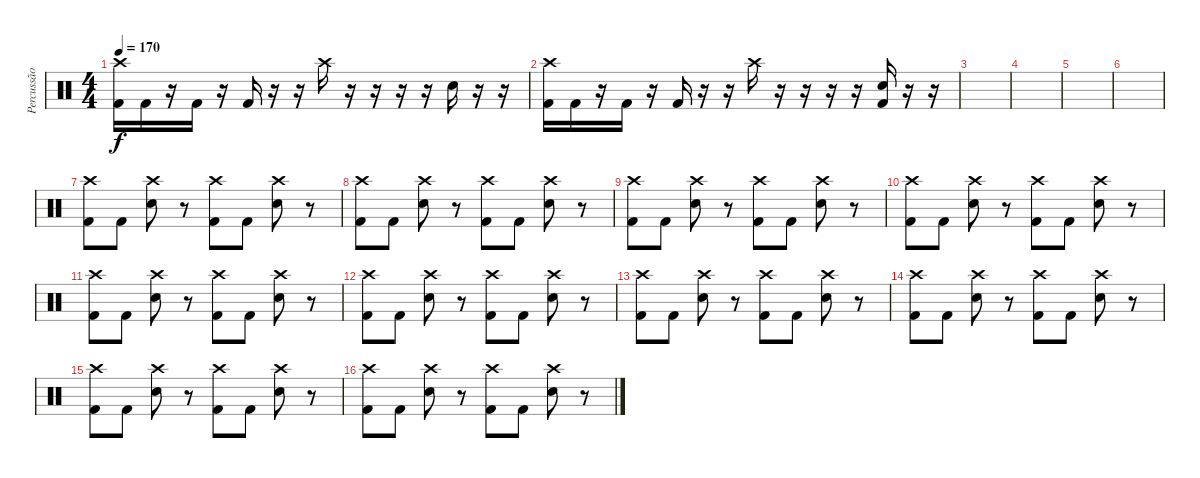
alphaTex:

\track ("Percussão" "Percussão") {instrument percussion}
\staff {score}
\articulation defaults
\ts (4 4)
\tempo 170
\clef neutral
\ks c
("Crash high (hit)" "Kick (hit) 2").16{dy f} "Kick (hit) 2".16 r.16 "Kick (hit) 2".16 r.16 "Kick (hit) 2".16 r.16 r.16 "Crash high (hit)".16 r.16 r.16 r.16 r.16 "Electric Snare (hit)".16 r.16 r.16 |
("Crash high (hit)" "Kick (hit) 2").16 "Kick (hit) 2".16 r.16 "Kick (hit) 2".16 r.16 "Kick (hit) 2".16 r.16 r.16 "Crash high (hit)".16 r.16 r.16 r.16 r.16 ("Electric Snare (hit)" "Kick (hit) 2").16 r.16 r.16 |
|
|
|
|
("Crash high (hit)" "Kick (hit) 2").8 "Kick (hit) 2".8 ("Crash high (hit)" "Electric Snare (hit)").8 r.8 ("Crash high (hit)" "Kick (hit) 2").8 "Kick (hit) 2".8 ("Crash high (hit)" "Electric Snare (hit)").8 r.8 |
("Crash high (hit)" "Kick (hit) 2").8 "Kick (hit) 2".8 ("Crash high (hit)" "Electric Snare (hit)").8 r.8 ("Crash high (hit)" "Kick (hit) 2").8 "Kick (hit) 2".8 ("Crash high (hit)" "Electric Snare (hit)").8 r.8 |
("Crash high (hit)" "Kick (hit) 2").8 "Kick (hit) 2".8 ("Crash high (hit)" "Electric Snare (hit)").8 r.8 ("Crash high (hit)" "Kick (hit) 2").8 "Kick (hit) 2".8 ("Crash high (hit)" "Electric Snare (hit)").8 r.8 |
("Crash high (hit)" "Kick (hit) 2").8 "Kick (hit) 2".8 ("Crash high (hit)" "Electric Snare (hit)").8 r.8 ("Crash high (hit)" "Kick (hit) 2").8 "Kick (hit) 2".8 ("Crash high (hit)" "Electric Snare (hit)").8 r.8 |
("Crash high (hit)" "Kick (hit) 2").8 "Kick (hit) 2".8 ("Crash high (hit)" "Electric Snare (hit)").8 r.8 ("Crash high (hit)" "Kick (hit) 2").8 "Kick (hit) 2".8 ("Crash high (hit)" "Electric Snare (hit)").8 r.8 |
("Crash high (hit)" "Kick (hit) 2").8 "Kick (hit) 2".8 ("Crash high (hit)" "Electric Snare (hit)").8 r.8 ("Crash high (hit)" "Kick (hit) 2").8 "Kick (hit) 2".8 ("Crash high (hit)" "Electric Snare (hit)").8 r.8 |
("Crash high (hit)" "Kick (hit) 2").8 "Kick (hit) 2".8 ("Crash high (hit)" "Electric Snare (hit)").8 r.8 ("Crash high (hit)" "Kick (hit) 2").8 "Kick (hit) 2".8 ("Crash high (hit)" "Electric Snare (hit)").8 r.8 |
("Crash high (hit)" "Kick (hit) 2").8 "Kick (hit) 2".8 ("Crash high (hit)" "Electric Snare (hit)").8 r.8 ("Crash high (hit)" "Kick (hit) 2").8 "Kick (hit) 2".8 ("Crash high (hit)" "Electric Snare (hit)").8 r.8 |
("Crash high (hit)" "Kick (hit) 2").8 "Kick (hit) 2".8 ("Crash high (hit)" "Electric Snare (hit)").8 r.8 ("Crash high (hit)" "Kick (hit) 2").8 "Kick (hit) 2".8 ("Crash high (hit)" "Electric Snare (hit)").8 r.8 |
("Crash high (hit)" "Kick (hit) 2").8 "Kick (hit) 2".8 ("Crash high (hit)" "Electric Snare (hit)").8 r.8 ("Crash high (hit)" "Kick (hit) 2").8 "Kick (hit) 2".8 ("Crash high (hit)" "Electric Snare (hit)").8 r.8
